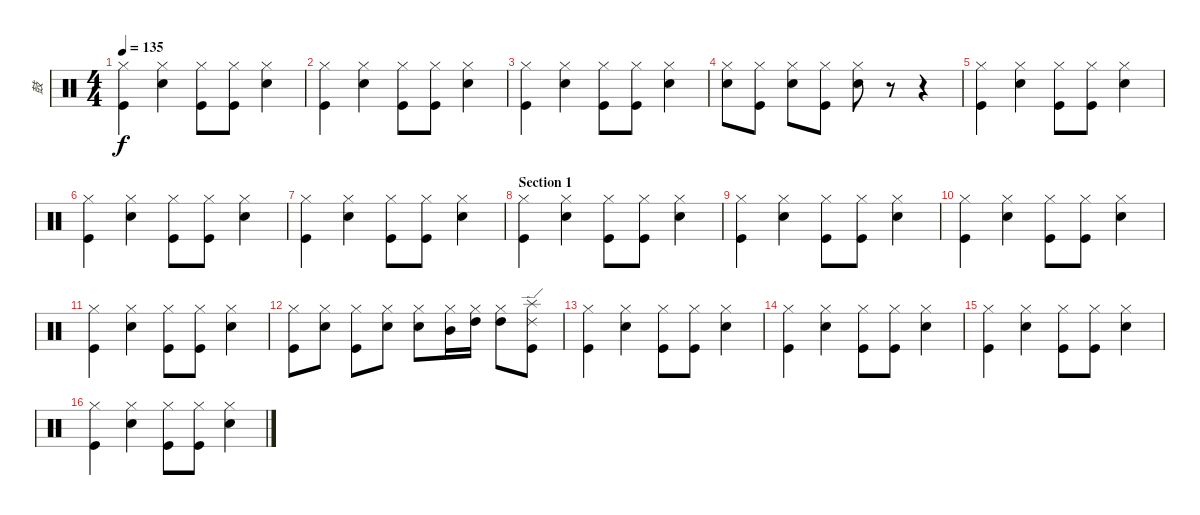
\track ("鼓" "鼓") {instrument percussion}
\staff {score}
\articulation defaults
\ts (4 4)
\tempo 135
\clef neutral
\ks c
("Hi-Hat (closed)" "Kick (hit)").4{dy f} ("Hi-Hat (closed)" "Metronome (bell)").4 ("Hi-Hat (closed)" "Kick (hit)").8 ("Hi-Hat (closed)" "Kick (hit)").8 ("Hi-Hat (closed)" "Metronome (bell)").4 |
("Hi-Hat (closed)" "Kick (hit)").4 ("Hi-Hat (closed)" "Metronome (bell)").4 ("Hi-Hat (closed)" "Kick (hit)").8 ("Hi-Hat (closed)" "Kick (hit)").8 ("Hi-Hat (closed)" "Metronome (bell)").4 |
("Hi-Hat (closed)" "Kick (hit)").4 ("Hi-Hat (closed)" "Metronome (bell)").4 ("Hi-Hat (closed)" "Kick (hit)").8 ("Hi-Hat (closed)" "Kick (hit)").8 ("Hi-Hat (closed)" "Metronome (bell)").4 |
("Hi-Hat (closed)" "Metronome (bell)").8 ("Hi-Hat (closed)" "Kick (hit)").8 ("Hi-Hat (closed)" "Metronome (bell)").8 ("Hi-Hat (closed)" "Kick (hit)").8 ("Hi-Hat (closed)" "Metronome (bell)").8 r.8 r.4 |
("Hi-Hat (closed)" "Kick (hit)").4 ("Hi-Hat (closed)" "Metronome (bell)").4 ("Hi-Hat (closed)" "Kick (hit)").8 ("Hi-Hat (closed)" "Kick (hit)").8 ("Hi-Hat (closed)" "Metronome (bell)").4 |
("Hi-Hat (closed)" "Kick (hit)").4 ("Hi-Hat (closed)" "Metronome (bell)").4 ("Hi-Hat (closed)" "Kick (hit)").8 ("Hi-Hat (closed)" "Kick (hit)").8 ("Hi-Hat (closed)" "Metronome (bell)").4 |
("Hi-Hat (closed)" "Kick (hit)").4 ("Hi-Hat (closed)" "Metronome (bell)").4 ("Hi-Hat (closed)" "Kick (hit)").8 ("Hi-Hat (closed)" "Kick (hit)").8 ("Hi-Hat (closed)" "Metronome (bell)").4 |
\section ("" "Section 1")
("Hi-Hat (closed)" "Kick (hit)").4 ("Hi-Hat (closed)" "Metronome (bell)").4 ("Hi-Hat (closed)" "Kick (hit)").8 ("Hi-Hat (closed)" "Kick (hit)").8 ("Hi-Hat (closed)" "Metronome (bell)").4 |
("Hi-Hat (closed)" "Kick (hit)").4 ("Hi-Hat (closed)" "Metronome (bell)").4 ("Hi-Hat (closed)" "Kick (hit)").8 ("Hi-Hat (closed)" "Kick (hit)").8 ("Hi-Hat (closed)" "Metronome (bell)").4 |
("Hi-Hat (closed)" "Kick (hit)").4 ("Hi-Hat (closed)" "Metronome (bell)").4 ("Hi-Hat (closed)" "Kick (hit)").8 ("Hi-Hat (closed)" "Kick (hit)").8 ("Hi-Hat (closed)" "Metronome (bell)").4 |
("Hi-Hat (closed)" "Kick (hit)").4 ("Hi-Hat (closed)" "Metronome (bell)").4 ("Hi-Hat (closed)" "Kick (hit)").8 ("Hi-Hat (closed)" "Kick (hit)").8 ("Hi-Hat (closed)" "Metronome (bell)").4 |
("Hi-Hat (closed)" "Kick (hit)").8 ("Hi-Hat (closed)" "Metronome (bell)").8 ("Hi-Hat (closed)" "Kick (hit)").8 ("Hi-Hat (closed)" "Metronome (bell)").8 ("Hi-Hat (closed)" "Metronome (bell)").8 ("Hi-Hat (closed)" "Mid Tom (hit)").16 ("Hi-Hat (closed)" "High Tom (hit)").16 ("Hi-Hat (closed)" "High Tom (hit)").8 ("Splash (hit)" "Ride (edge) 2" "Kick (hit)").8 |
("Hi-Hat (closed)" "Kick (hit)").4 ("Hi-Hat (closed)" "Metronome (bell)").4 ("Hi-Hat (closed)" "Kick (hit)").8 ("Hi-Hat (closed)" "Kick (hit)").8 ("Hi-Hat (closed)" "Metronome (bell)").4 |
("Hi-Hat (closed)" "Kick (hit)").4 ("Hi-Hat (closed)" "Metronome (bell)").4 ("Hi-Hat (closed)" "Kick (hit)").8 ("Hi-Hat (closed)" "Kick (hit)").8 ("Hi-Hat (closed)" "Metronome (bell)").4 |
("Hi-Hat (closed)" "Kick (hit)").4 ("Hi-Hat (closed)" "Metronome (bell)").4 ("Hi-Hat (closed)" "Kick (hit)").8 ("Hi-Hat (closed)" "Kick (hit)").8 ("Hi-Hat (closed)" "Metronome (bell)").4 |
("Hi-Hat (closed)" "Kick (hit)").4 ("Hi-Hat (closed)" "Metronome (bell)").4 ("Hi-Hat (closed)" "Kick (hit)").8 ("Hi-Hat (closed)" "Kick (hit)").8 ("Hi-Hat (closed)" "Metronome (bell)").4
